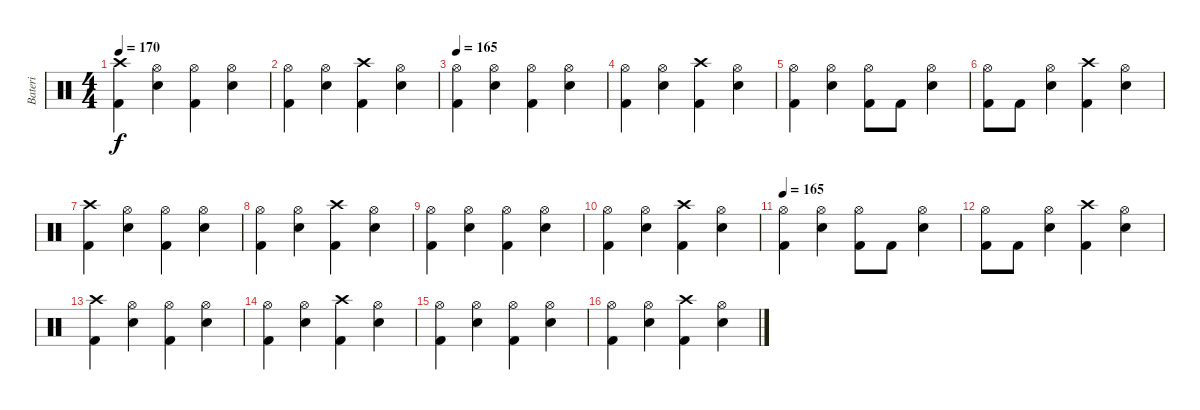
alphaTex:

\track ("Bateri" "Bateri") {instrument percussion}
\staff {score}
\articulation defaults
\ts (4 4)
\tempo 170
\clef neutral
\ks c
("Crash high (hit)" "Kick (hit) 2").4{dy f} ("Hi-Hat (open)" "Snare (hit) 2").4 ("Hi-Hat (open)" "Kick (hit) 2").4 ("Hi-Hat (open)" "Snare (hit) 2").4 |
("Hi-Hat (open)" "Kick (hit) 2").4 ("Hi-Hat (open)" "Snare (hit) 2").4 ("Crash high (hit)" "Kick (hit) 2").4 ("Hi-Hat (open)" "Snare (hit) 2").4 |
\tempo 165
("Hi-Hat (open)" "Kick (hit) 2").4 ("Hi-Hat (open)" "Snare (hit) 2").4 ("Hi-Hat (open)" "Kick (hit) 2").4 ("Hi-Hat (open)" "Snare (hit) 2").4 |
("Hi-Hat (open)" "Kick (hit) 2").4 ("Hi-Hat (open)" "Snare (hit) 2").4 ("Crash high (hit)" "Kick (hit) 2").4 ("Hi-Hat (open)" "Snare (hit) 2").4 |
("Hi-Hat (open)" "Kick (hit) 2").4 ("Hi-Hat (open)" "Snare (hit) 2").4 ("Hi-Hat (open)" "Kick (hit) 2").8 "Kick (hit) 2".8 ("Hi-Hat (open)" "Snare (hit) 2").4 |
("Hi-Hat (open)" "Kick (hit) 2").8 "Kick (hit) 2".8 ("Hi-Hat (open)" "Snare (hit) 2").4 ("Crash high (hit)" "Kick (hit) 2").4 ("Hi-Hat (open)" "Snare (hit) 2").4 |
("Crash high (hit)" "Kick (hit) 2").4 ("Hi-Hat (open)" "Snare (hit) 2").4 ("Hi-Hat (open)" "Kick (hit) 2").4 ("Hi-Hat (open)" "Snare (hit) 2").4 |
("Hi-Hat (open)" "Kick (hit) 2").4 ("Hi-Hat (open)" "Snare (hit) 2").4 ("Crash high (hit)" "Kick (hit) 2").4 ("Hi-Hat (open)" "Snare (hit) 2").4 |
("Hi-Hat (open)" "Kick (hit) 2").4 ("Hi-Hat (open)" "Snare (hit) 2").4 ("Hi-Hat (open)" "Kick (hit) 2").4 ("Hi-Hat (open)" "Snare (hit) 2").4 |
("Hi-Hat (open)" "Kick (hit) 2").4 ("Hi-Hat (open)" "Snare (hit) 2").4 ("Crash high (hit)" "Kick (hit) 2").4 ("Hi-Hat (open)" "Snare (hit) 2").4 |
\tempo 165
("Hi-Hat (open)" "Kick (hit) 2").4 ("Hi-Hat (open)" "Snare (hit) 2").4 ("Hi-Hat (open)" "Kick (hit) 2").8 "Kick (hit) 2".8 ("Hi-Hat (open)" "Snare (hit) 2").4 |
("Hi-Hat (open)" "Kick (hit) 2").8 "Kick (hit) 2".8 ("Hi-Hat (open)" "Snare (hit) 2").4 ("Crash high (hit)" "Kick (hit) 2").4 ("Hi-Hat (open)" "Snare (hit) 2").4 |
("Crash high (hit)" "Kick (hit) 2").4 ("Hi-Hat (open)" "Snare (hit) 2").4 ("Hi-Hat (open)" "Kick (hit) 2").4 ("Hi-Hat (open)" "Snare (hit) 2").4 |
("Hi-Hat (open)" "Kick (hit) 2").4 ("Hi-Hat (open)" "Snare (hit) 2").4 ("Crash high (hit)" "Kick (hit) 2").4 ("Hi-Hat (open)" "Snare (hit) 2").4 |
("Hi-Hat (open)" "Kick (hit) 2").4 ("Hi-Hat (open)" "Snare (hit) 2").4 ("Hi-Hat (open)" "Kick (hit) 2").4 ("Hi-Hat (open)" "Snare (hit) 2").4 |
("Hi-Hat (open)" "Kick (hit) 2").4 ("Hi-Hat (open)" "Snare (hit) 2").4 ("Crash high (hit)" "Kick (hit) 2").4 ("Hi-Hat (open)" "Snare (hit) 2").4
